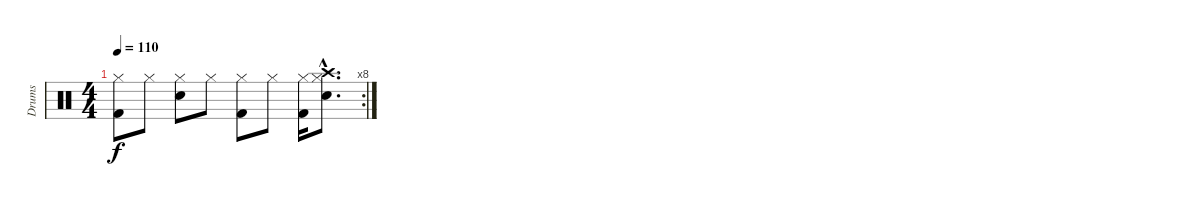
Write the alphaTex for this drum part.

\track ("Drums" "Drums") {instrument percussion}
\staff {score}
\articulation defaults
\rc 8
\ts (4 4)
\tempo 110
\clef neutral
\ks c
("Kick (hit) 2" "Hi-Hat (closed)").8{dy f} "Hi-Hat (closed)".8 ("Snare (hit) 2" "Hi-Hat (closed)").8 "Hi-Hat (closed)".8 ("Kick (hit) 2" "Hi-Hat (closed)").8 "Hi-Hat (closed)".8 ("Kick (hit) 2" "Hi-Hat (closed)").16 ("Snare (hit) 2"{hac} "Hi-Hat (closed)"{hac} "Crash high (hit)"{hac}).8{d}
